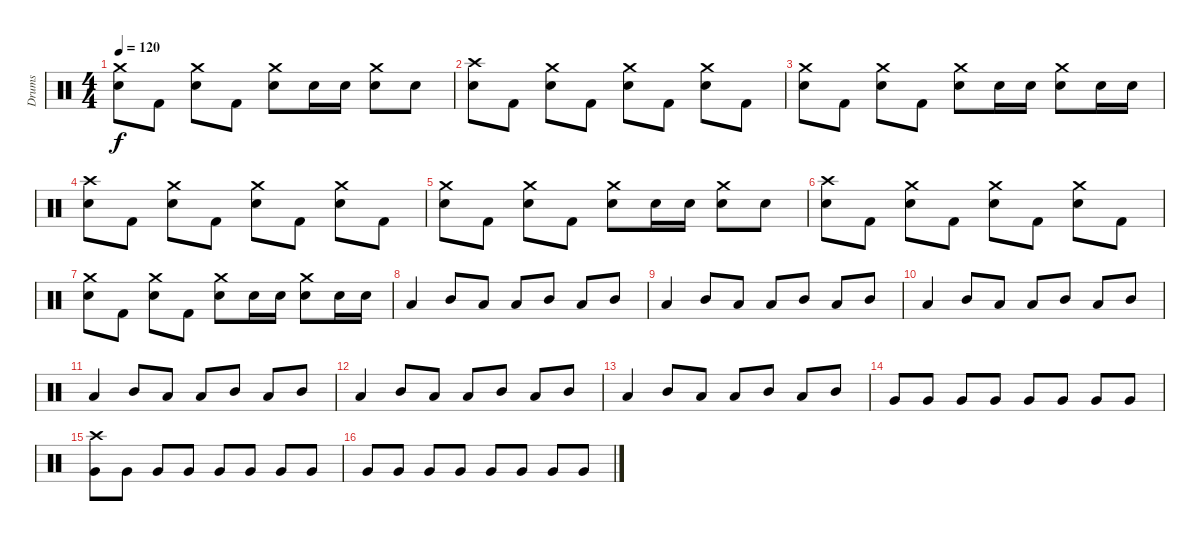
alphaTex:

\track ("Drums" "Drums") {instrument percussion}
\staff {score}
\articulation defaults
\ts (4 4)
\tempo 120
\clef neutral
\ks c
("Crash medium (hit)" "Electric Snare (hit)").8{dy f} "Kick (hit) 2".8 ("Crash medium (hit)" "Electric Snare (hit)").8 "Kick (hit) 2".8 ("Crash medium (hit)" "Electric Snare (hit)").8 "Electric Snare (hit)".16 "Electric Snare (hit)".16 ("Crash medium (hit)" "Electric Snare (hit)").8 "Electric Snare (hit)".8 |
("Crash high (hit)" "Electric Snare (hit)").8 "Kick (hit) 2".8 ("Crash medium (hit)" "Electric Snare (hit)").8 "Kick (hit) 2".8 ("Crash medium (hit)" "Electric Snare (hit)").8 "Kick (hit) 2".8 ("Crash medium (hit)" "Electric Snare (hit)").8 "Kick (hit) 2".8 |
("Crash medium (hit)" "Electric Snare (hit)").8 "Kick (hit) 2".8 ("Crash medium (hit)" "Electric Snare (hit)").8 "Kick (hit) 2".8 ("Crash medium (hit)" "Electric Snare (hit)").8 "Electric Snare (hit)".16 "Electric Snare (hit)".16 ("Crash medium (hit)" "Electric Snare (hit)").8 "Electric Snare (hit)".16 "Electric Snare (hit)".16 |
("Crash high (hit)" "Electric Snare (hit)").8 "Kick (hit) 2".8 ("Crash medium (hit)" "Electric Snare (hit)").8 "Kick (hit) 2".8 ("Crash medium (hit)" "Electric Snare (hit)").8 "Kick (hit) 2".8 ("Crash medium (hit)" "Electric Snare (hit)").8 "Kick (hit) 2".8 |
("Crash medium (hit)" "Electric Snare (hit)").8 "Kick (hit) 2".8 ("Crash medium (hit)" "Electric Snare (hit)").8 "Kick (hit) 2".8 ("Crash medium (hit)" "Electric Snare (hit)").8 "Electric Snare (hit)".16 "Electric Snare (hit)".16 ("Crash medium (hit)" "Electric Snare (hit)").8 "Electric Snare (hit)".8 |
("Crash high (hit)" "Electric Snare (hit)").8 "Kick (hit) 2".8 ("Crash medium (hit)" "Electric Snare (hit)").8 "Kick (hit) 2".8 ("Crash medium (hit)" "Electric Snare (hit)").8 "Kick (hit) 2".8 ("Crash medium (hit)" "Electric Snare (hit)").8 "Kick (hit) 2".8 |
("Crash medium (hit)" "Electric Snare (hit)").8 "Kick (hit) 2".8 ("Crash medium (hit)" "Electric Snare (hit)").8 "Kick (hit) 2".8 ("Crash medium (hit)" "Electric Snare (hit)").8 "Electric Snare (hit)".16 "Electric Snare (hit)".16 ("Crash medium (hit)" "Electric Snare (hit)").8 "Electric Snare (hit)".16 "Electric Snare (hit)".16 |
"Low Floor Tom (hit)".4 "Mid Tom (hit)".8 "Low Tom (hit)".8 "Low Tom (hit)".8 "Mid Tom (hit)".8 "Low Tom (hit)".8 "Mid Tom (hit)".8 |
"Low Floor Tom (hit)".4 "Mid Tom (hit)".8 "Low Tom (hit)".8 "Low Tom (hit)".8 "Mid Tom (hit)".8 "Low Tom (hit)".8 "Mid Tom (hit)".8 |
"Low Floor Tom (hit)".4 "Mid Tom (hit)".8 "Low Tom (hit)".8 "Low Tom (hit)".8 "Mid Tom (hit)".8 "Low Tom (hit)".8 "Mid Tom (hit)".8 |
"Low Floor Tom (hit)".4 "Mid Tom (hit)".8 "Low Tom (hit)".8 "Low Tom (hit)".8 "Mid Tom (hit)".8 "Low Tom (hit)".8 "Mid Tom (hit)".8 |
"Low Floor Tom (hit)".4 "Mid Tom (hit)".8 "Low Tom (hit)".8 "Low Tom (hit)".8 "Mid Tom (hit)".8 "Low Tom (hit)".8 "Mid Tom (hit)".8 |
"Low Floor Tom (hit)".4 "Mid Tom (hit)".8 "Low Tom (hit)".8 "Low Tom (hit)".8 "Mid Tom (hit)".8 "Low Tom (hit)".8 "Mid Tom (hit)".8 |
"Very Low Tom (hit)".8 "Very Low Tom (hit)".8 "Very Low Tom (hit)".8 "Very Low Tom (hit)".8 "Very Low Tom (hit)".8 "Very Low Tom (hit)".8 "Very Low Tom (hit)".8 "Very Low Tom (hit)".8 |
("Crash high (hit)" "Very Low Tom (hit)").8 "Very Low Tom (hit)".8 "Very Low Tom (hit)".8 "Very Low Tom (hit)".8 "Very Low Tom (hit)".8 "Very Low Tom (hit)".8 "Very Low Tom (hit)".8 "Very Low Tom (hit)".8 |
"Very Low Tom (hit)".8 "Very Low Tom (hit)".8 "Very Low Tom (hit)".8 "Very Low Tom (hit)".8 "Very Low Tom (hit)".8 "Very Low Tom (hit)".8 "Very Low Tom (hit)".8 "Very Low Tom (hit)".8
